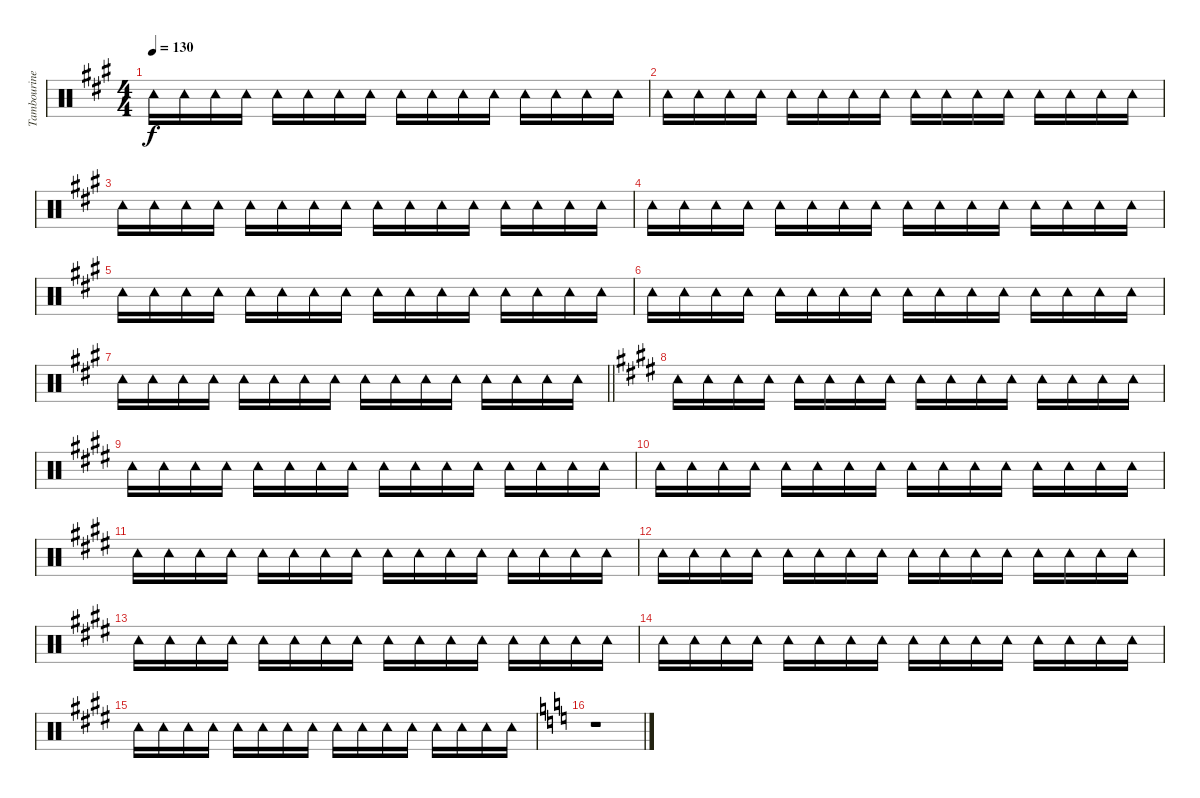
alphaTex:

\track ("Tambourine" "Tambourine") {instrument percussion}
\staff {score}
\articulation defaults
\ts (4 4)
\tempo 130
\clef neutral
\ks a "Tambourine (hit)".16{dy f} "Tambourine (hit)".16 "Tambourine (hit)".16 "Tambourine (hit)".16 "Tambourine (hit)".16 "Tambourine (hit)".16 "Tambourine (hit)".16 "Tambourine (hit)".16 "Tambourine (hit)".16 "Tambourine (hit)".16 "Tambourine (hit)".16 "Tambourine (hit)".16 "Tambourine (hit)".16 "Tambourine (hit)".16 "Tambourine (hit)".16 "Tambourine (hit)".16
|
"Tambourine (hit)".16 "Tambourine (hit)".16 "Tambourine (hit)".16 "Tambourine (hit)".16 "Tambourine (hit)".16 "Tambourine (hit)".16 "Tambourine (hit)".16 "Tambourine (hit)".16 "Tambourine (hit)".16 "Tambourine (hit)".16 "Tambourine (hit)".16 "Tambourine (hit)".16 "Tambourine (hit)".16 "Tambourine (hit)".16 "Tambourine (hit)".16 "Tambourine (hit)".16 |
"Tambourine (hit)".16 "Tambourine (hit)".16 "Tambourine (hit)".16 "Tambourine (hit)".16 "Tambourine (hit)".16 "Tambourine (hit)".16 "Tambourine (hit)".16 "Tambourine (hit)".16 "Tambourine (hit)".16 "Tambourine (hit)".16 "Tambourine (hit)".16 "Tambourine (hit)".16 "Tambourine (hit)".16 "Tambourine (hit)".16 "Tambourine (hit)".16 "Tambourine (hit)".16 |
"Tambourine (hit)".16 "Tambourine (hit)".16 "Tambourine (hit)".16 "Tambourine (hit)".16 "Tambourine (hit)".16 "Tambourine (hit)".16 "Tambourine (hit)".16 "Tambourine (hit)".16 "Tambourine (hit)".16 "Tambourine (hit)".16 "Tambourine (hit)".16 "Tambourine (hit)".16 "Tambourine (hit)".16 "Tambourine (hit)".16 "Tambourine (hit)".16 "Tambourine (hit)".16 |
"Tambourine (hit)".16 "Tambourine (hit)".16 "Tambourine (hit)".16 "Tambourine (hit)".16 "Tambourine (hit)".16 "Tambourine (hit)".16 "Tambourine (hit)".16 "Tambourine (hit)".16 "Tambourine (hit)".16 "Tambourine (hit)".16 "Tambourine (hit)".16 "Tambourine (hit)".16 "Tambourine (hit)".16 "Tambourine (hit)".16 "Tambourine (hit)".16 "Tambourine (hit)".16 |
"Tambourine (hit)".16 "Tambourine (hit)".16 "Tambourine (hit)".16 "Tambourine (hit)".16 "Tambourine (hit)".16 "Tambourine (hit)".16 "Tambourine (hit)".16 "Tambourine (hit)".16 "Tambourine (hit)".16 "Tambourine (hit)".16 "Tambourine (hit)".16 "Tambourine (hit)".16 "Tambourine (hit)".16 "Tambourine (hit)".16 "Tambourine (hit)".16 "Tambourine (hit)".16 |
\barLineRight lightlight "Tambourine (hit)".16 "Tambourine (hit)".16 "Tambourine (hit)".16 "Tambourine (hit)".16 "Tambourine (hit)".16 "Tambourine (hit)".16 "Tambourine (hit)".16 "Tambourine (hit)".16 "Tambourine (hit)".16 "Tambourine (hit)".16 "Tambourine (hit)".16 "Tambourine (hit)".16 "Tambourine (hit)".16 "Tambourine (hit)".16 "Tambourine (hit)".16 "Tambourine (hit)".16
|
\ks e "Tambourine (hit)".16 "Tambourine (hit)".16 "Tambourine (hit)".16 "Tambourine (hit)".16 "Tambourine (hit)".16 "Tambourine (hit)".16 "Tambourine (hit)".16 "Tambourine (hit)".16 "Tambourine (hit)".16 "Tambourine (hit)".16 "Tambourine (hit)".16 "Tambourine (hit)".16 "Tambourine (hit)".16 "Tambourine (hit)".16 "Tambourine (hit)".16 "Tambourine (hit)".16
|
\ks c#minor "Tambourine (hit)".16 "Tambourine (hit)".16 "Tambourine (hit)".16 "Tambourine (hit)".16 "Tambourine (hit)".16 "Tambourine (hit)".16 "Tambourine (hit)".16 "Tambourine (hit)".16 "Tambourine (hit)".16 "Tambourine (hit)".16 "Tambourine (hit)".16 "Tambourine (hit)".16 "Tambourine (hit)".16 "Tambourine (hit)".16 "Tambourine (hit)".16 "Tambourine (hit)".16
|
\ks e "Tambourine (hit)".16 "Tambourine (hit)".16 "Tambourine (hit)".16 "Tambourine (hit)".16 "Tambourine (hit)".16 "Tambourine (hit)".16 "Tambourine (hit)".16 "Tambourine (hit)".16 "Tambourine (hit)".16 "Tambourine (hit)".16 "Tambourine (hit)".16 "Tambourine (hit)".16 "Tambourine (hit)".16 "Tambourine (hit)".16 "Tambourine (hit)".16 "Tambourine (hit)".16
|
\ks c#minor "Tambourine (hit)".16 "Tambourine (hit)".16 "Tambourine (hit)".16 "Tambourine (hit)".16 "Tambourine (hit)".16 "Tambourine (hit)".16 "Tambourine (hit)".16 "Tambourine (hit)".16 "Tambourine (hit)".16 "Tambourine (hit)".16 "Tambourine (hit)".16 "Tambourine (hit)".16 "Tambourine (hit)".16 "Tambourine (hit)".16 "Tambourine (hit)".16 "Tambourine (hit)".16
|
"Tambourine (hit)".16 "Tambourine (hit)".16 "Tambourine (hit)".16 "Tambourine (hit)".16 "Tambourine (hit)".16 "Tambourine (hit)".16 "Tambourine (hit)".16 "Tambourine (hit)".16 "Tambourine (hit)".16 "Tambourine (hit)".16 "Tambourine (hit)".16 "Tambourine (hit)".16 "Tambourine (hit)".16 "Tambourine (hit)".16 "Tambourine (hit)".16 "Tambourine (hit)".16 |
"Tambourine (hit)".16 "Tambourine (hit)".16 "Tambourine (hit)".16 "Tambourine (hit)".16 "Tambourine (hit)".16 "Tambourine (hit)".16 "Tambourine (hit)".16 "Tambourine (hit)".16 "Tambourine (hit)".16 "Tambourine (hit)".16 "Tambourine (hit)".16 "Tambourine (hit)".16 "Tambourine (hit)".16 "Tambourine (hit)".16 "Tambourine (hit)".16 "Tambourine (hit)".16 |
\ks e "Tambourine (hit)".16 "Tambourine (hit)".16 "Tambourine (hit)".16 "Tambourine (hit)".16 "Tambourine (hit)".16 "Tambourine (hit)".16 "Tambourine (hit)".16 "Tambourine (hit)".16 "Tambourine (hit)".16 "Tambourine (hit)".16 "Tambourine (hit)".16 "Tambourine (hit)".16 "Tambourine (hit)".16 "Tambourine (hit)".16 "Tambourine (hit)".16 "Tambourine (hit)".16
|
\ks c#minor "Tambourine (hit)".16 "Tambourine (hit)".16 "Tambourine (hit)".16 "Tambourine (hit)".16 "Tambourine (hit)".16 "Tambourine (hit)".16 "Tambourine (hit)".16 "Tambourine (hit)".16 "Tambourine (hit)".16 "Tambourine (hit)".16 "Tambourine (hit)".16 "Tambourine (hit)".16 "Tambourine (hit)".16 "Tambourine (hit)".16 "Tambourine (hit)".16 "Tambourine (hit)".16
|
\ks c
r.1
